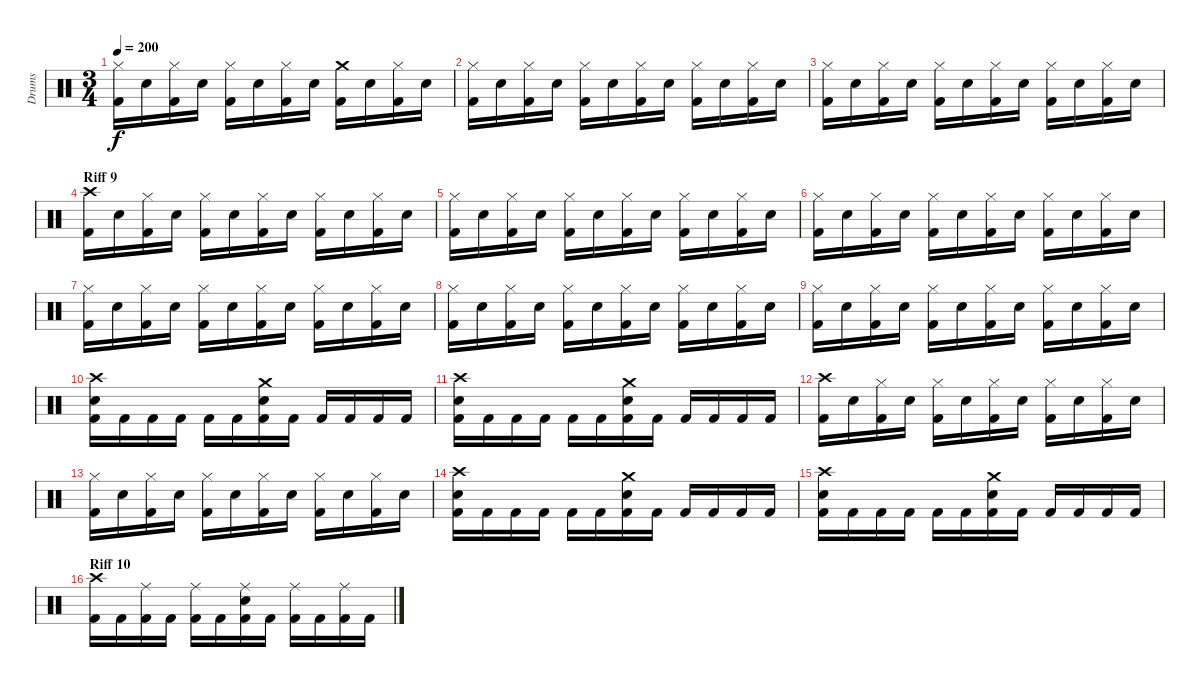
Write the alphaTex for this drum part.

\track ("Drums" "Drums") {instrument percussion}
\staff {score}
\articulation defaults
\ts (3 4)
\tempo 200
\clef neutral
\ks c
("Hi-Hat (closed)" "Kick (hit) 2").16{dy f} "Electric Snare (hit)".16 ("Hi-Hat (closed)" "Kick (hit) 2").16 "Electric Snare (hit)".16 ("Hi-Hat (closed)" "Kick (hit) 2").16 "Electric Snare (hit)".16 ("Hi-Hat (closed)" "Kick (hit) 2").16 "Electric Snare (hit)".16 ("Crash medium (hit)" "Kick (hit) 2").16 "Electric Snare (hit)".16 ("Hi-Hat (closed)" "Kick (hit) 2").16 "Electric Snare (hit)".16 |
("Hi-Hat (closed)" "Kick (hit) 2").16 "Electric Snare (hit)".16 ("Hi-Hat (closed)" "Kick (hit) 2").16 "Electric Snare (hit)".16 ("Hi-Hat (closed)" "Kick (hit) 2").16 "Electric Snare (hit)".16 ("Hi-Hat (closed)" "Kick (hit) 2").16 "Electric Snare (hit)".16 ("Hi-Hat (closed)" "Kick (hit) 2").16 "Electric Snare (hit)".16 ("Hi-Hat (closed)" "Kick (hit) 2").16 "Electric Snare (hit)".16 |
("Hi-Hat (closed)" "Kick (hit) 2").16 "Electric Snare (hit)".16 ("Hi-Hat (closed)" "Kick (hit) 2").16 "Electric Snare (hit)".16 ("Hi-Hat (closed)" "Kick (hit) 2").16 "Electric Snare (hit)".16 ("Hi-Hat (closed)" "Kick (hit) 2").16 "Electric Snare (hit)".16 ("Hi-Hat (closed)" "Kick (hit) 2").16 "Electric Snare (hit)".16 ("Hi-Hat (closed)" "Kick (hit) 2").16 "Electric Snare (hit)".16 |
\section ("" "Riff 9")
("Crash high (hit)" "Kick (hit) 2").16 "Electric Snare (hit)".16 ("Hi-Hat (closed)" "Kick (hit) 2").16 "Electric Snare (hit)".16 ("Hi-Hat (closed)" "Kick (hit) 2").16 "Electric Snare (hit)".16 ("Hi-Hat (closed)" "Kick (hit) 2").16 "Electric Snare (hit)".16 ("Hi-Hat (closed)" "Kick (hit) 2").16 "Electric Snare (hit)".16 ("Hi-Hat (closed)" "Kick (hit) 2").16 "Electric Snare (hit)".16 |
("Hi-Hat (closed)" "Kick (hit) 2").16 "Electric Snare (hit)".16 ("Hi-Hat (closed)" "Kick (hit) 2").16 "Electric Snare (hit)".16 ("Hi-Hat (closed)" "Kick (hit) 2").16 "Electric Snare (hit)".16 ("Hi-Hat (closed)" "Kick (hit) 2").16 "Electric Snare (hit)".16 ("Hi-Hat (closed)" "Kick (hit) 2").16 "Electric Snare (hit)".16 ("Hi-Hat (closed)" "Kick (hit) 2").16 "Electric Snare (hit)".16 |
("Hi-Hat (closed)" "Kick (hit) 2").16 "Electric Snare (hit)".16 ("Hi-Hat (closed)" "Kick (hit) 2").16 "Electric Snare (hit)".16 ("Hi-Hat (closed)" "Kick (hit) 2").16 "Electric Snare (hit)".16 ("Hi-Hat (closed)" "Kick (hit) 2").16 "Electric Snare (hit)".16 ("Hi-Hat (closed)" "Kick (hit) 2").16 "Electric Snare (hit)".16 ("Hi-Hat (closed)" "Kick (hit) 2").16 "Electric Snare (hit)".16 |
("Hi-Hat (closed)" "Kick (hit) 2").16 "Electric Snare (hit)".16 ("Hi-Hat (closed)" "Kick (hit) 2").16 "Electric Snare (hit)".16 ("Hi-Hat (closed)" "Kick (hit) 2").16 "Electric Snare (hit)".16 ("Hi-Hat (closed)" "Kick (hit) 2").16 "Electric Snare (hit)".16 ("Hi-Hat (closed)" "Kick (hit) 2").16 "Electric Snare (hit)".16 ("Hi-Hat (closed)" "Kick (hit) 2").16 "Electric Snare (hit)".16 |
("Hi-Hat (closed)" "Kick (hit) 2").16 "Electric Snare (hit)".16 ("Hi-Hat (closed)" "Kick (hit) 2").16 "Electric Snare (hit)".16 ("Hi-Hat (closed)" "Kick (hit) 2").16 "Electric Snare (hit)".16 ("Hi-Hat (closed)" "Kick (hit) 2").16 "Electric Snare (hit)".16 ("Hi-Hat (closed)" "Kick (hit) 2").16 "Electric Snare (hit)".16 ("Hi-Hat (closed)" "Kick (hit) 2").16 "Electric Snare (hit)".16 |
("Hi-Hat (closed)" "Kick (hit) 2").16 "Electric Snare (hit)".16 ("Hi-Hat (closed)" "Kick (hit) 2").16 "Electric Snare (hit)".16 ("Hi-Hat (closed)" "Kick (hit) 2").16 "Electric Snare (hit)".16 ("Hi-Hat (closed)" "Kick (hit) 2").16 "Electric Snare (hit)".16 ("Hi-Hat (closed)" "Kick (hit) 2").16 "Electric Snare (hit)".16 ("Hi-Hat (closed)" "Kick (hit) 2").16 "Electric Snare (hit)".16 |
("Crash high (hit)" "Electric Snare (hit)" "Kick (hit) 2").16 "Kick (hit) 2".16 "Kick (hit) 2".16 "Kick (hit) 2".16 "Kick (hit) 2".16 "Kick (hit) 2".16 ("Crash medium (hit)" "Electric Snare (hit)" "Kick (hit) 2").16 "Kick (hit) 2".16 "Kick (hit) 2".16 "Kick (hit) 2".16 "Kick (hit) 2".16 "Kick (hit) 2".16 |
("Crash high (hit)" "Electric Snare (hit)" "Kick (hit) 2").16 "Kick (hit) 2".16 "Kick (hit) 2".16 "Kick (hit) 2".16 "Kick (hit) 2".16 "Kick (hit) 2".16 ("Crash medium (hit)" "Electric Snare (hit)" "Kick (hit) 2").16 "Kick (hit) 2".16 "Kick (hit) 2".16 "Kick (hit) 2".16 "Kick (hit) 2".16 "Kick (hit) 2".16 |
("Crash high (hit)" "Kick (hit) 2").16 "Electric Snare (hit)".16 ("Hi-Hat (closed)" "Kick (hit) 2").16 "Electric Snare (hit)".16 ("Hi-Hat (closed)" "Kick (hit) 2").16 "Electric Snare (hit)".16 ("Hi-Hat (closed)" "Kick (hit) 2").16 "Electric Snare (hit)".16 ("Hi-Hat (closed)" "Kick (hit) 2").16 "Electric Snare (hit)".16 ("Hi-Hat (closed)" "Kick (hit) 2").16 "Electric Snare (hit)".16 |
("Hi-Hat (closed)" "Kick (hit) 2").16 "Electric Snare (hit)".16 ("Hi-Hat (closed)" "Kick (hit) 2").16 "Electric Snare (hit)".16 ("Hi-Hat (closed)" "Kick (hit) 2").16 "Electric Snare (hit)".16 ("Hi-Hat (closed)" "Kick (hit) 2").16 "Electric Snare (hit)".16 ("Hi-Hat (closed)" "Kick (hit) 2").16 "Electric Snare (hit)".16 ("Hi-Hat (closed)" "Kick (hit) 2").16 "Electric Snare (hit)".16 |
("Crash high (hit)" "Electric Snare (hit)" "Kick (hit) 2").16 "Kick (hit) 2".16 "Kick (hit) 2".16 "Kick (hit) 2".16 "Kick (hit) 2".16 "Kick (hit) 2".16 ("Crash medium (hit)" "Electric Snare (hit)" "Kick (hit) 2").16 "Kick (hit) 2".16 "Kick (hit) 2".16 "Kick (hit) 2".16 "Kick (hit) 2".16 "Kick (hit) 2".16 |
("Crash high (hit)" "Electric Snare (hit)" "Kick (hit) 2").16 "Kick (hit) 2".16 "Kick (hit) 2".16 "Kick (hit) 2".16 "Kick (hit) 2".16 "Kick (hit) 2".16 ("Crash medium (hit)" "Electric Snare (hit)" "Kick (hit) 2").16 "Kick (hit) 2".16 "Kick (hit) 2".16 "Kick (hit) 2".16 "Kick (hit) 2".16 "Kick (hit) 2".16 |
\section ("" "Riff 10")
("Crash high (hit)" "Kick (hit) 2").16 "Kick (hit) 2".16 ("Ride (middle)" "Kick (hit) 2").16 "Kick (hit) 2".16 ("Ride (middle)" "Kick (hit) 2").16 "Kick (hit) 2".16 ("Ride (middle)" "Electric Snare (hit)" "Kick (hit) 2").16 "Kick (hit) 2".16 ("Ride (middle)" "Kick (hit) 2").16 "Kick (hit) 2".16 ("Ride (middle)" "Kick (hit) 2").16 "Kick (hit) 2".16
